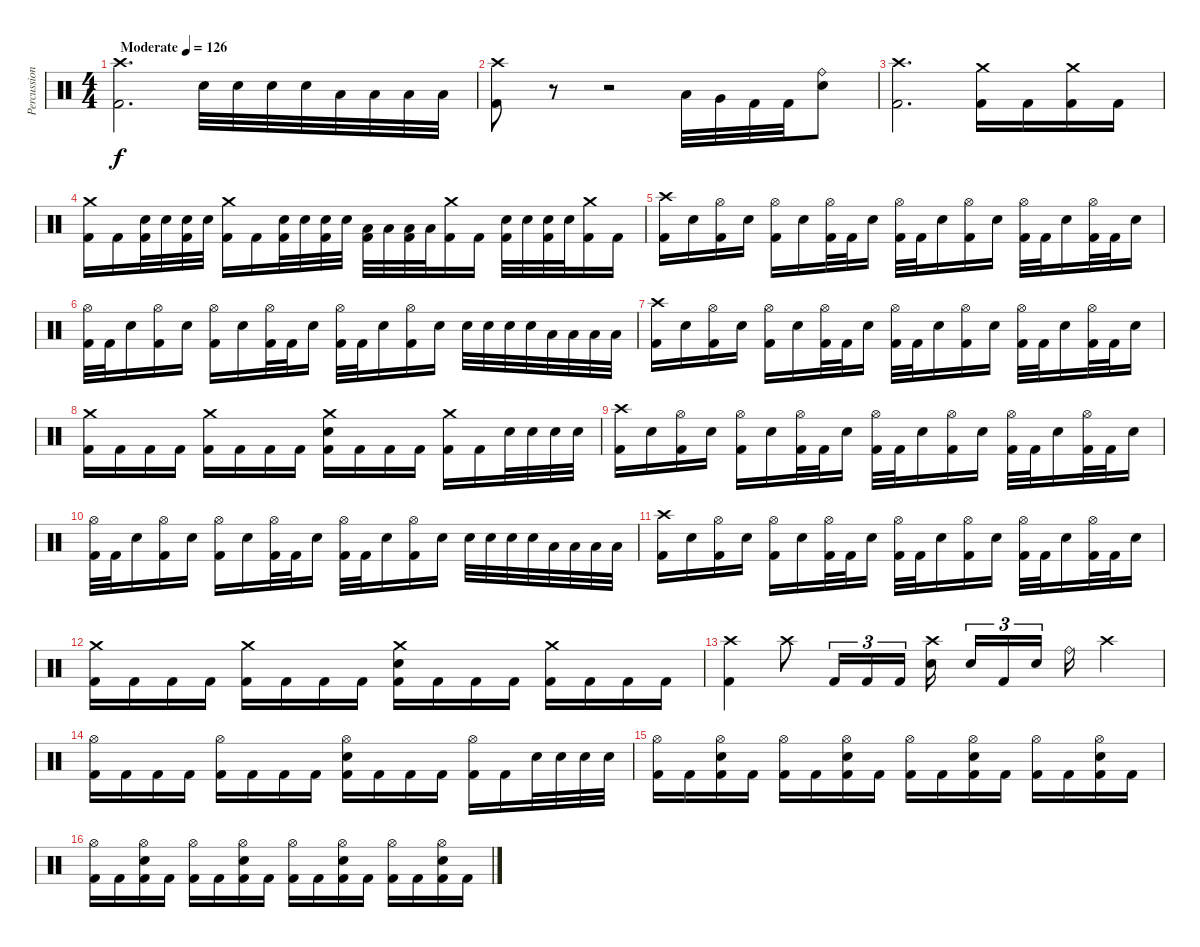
\track ("Percussion" "Percussion") {instrument percussion}
\staff {score}
\articulation defaults
\ts (4 4)
\tempo (126 "Moderate")
\clef neutral
\ks c
("Crash high (hit)" "Kick (hit) 2").2{d dy f} "Electric Snare (hit)".32 "Electric Snare (hit)".32 "Electric Snare (hit)".32 "Electric Snare (hit)".32 "Low Tom (hit)".32 "Low Tom (hit)".32 "Low Tom (hit)".32 "Low Tom (hit)".32 |
("Crash high (hit)" "Kick (hit) 2").8 r.8 r.2 "Low Tom (hit)".32 "Very Low Tom (hit)".32 "Kick (hit) 2".32 "Kick (hit) 2".32 ("Ride (bell)" "Electric Snare (hit)").8 |
("Crash high (hit)" "Kick (hit) 2").2{d} ("Crash medium (hit)" "Kick (hit) 2").16 "Kick (hit) 2".16 ("Crash medium (hit)" "Kick (hit) 2").16 "Kick (hit) 2".16 |
("Crash medium (hit)" "Kick (hit) 2").16 "Kick (hit) 2".16 ("Electric Snare (hit)" "Kick (hit) 2").32 "Electric Snare (hit)".32 ("Electric Snare (hit)" "Kick (hit) 2").32 "Electric Snare (hit)".32 ("Crash medium (hit)" "Kick (hit) 2").16 "Kick (hit) 2".16 ("Electric Snare (hit)" "Kick (hit) 2").32 "Electric Snare (hit)".32 ("Electric Snare (hit)" "Kick (hit) 2").32 "Electric Snare (hit)".32 ("Low Tom (hit)" "Kick (hit) 2").32 "Low Tom (hit)".32 ("Low Tom (hit)" "Kick (hit) 2").32 "Low Tom (hit)".32 ("Crash medium (hit)" "Kick (hit) 2").16 "Kick (hit) 2".16 ("Electric Snare (hit)" "Kick (hit) 2").32 "Electric Snare (hit)".32 ("Electric Snare (hit)" "Kick (hit) 2").32 "Electric Snare (hit)".32 ("Crash medium (hit)" "Kick (hit) 2").16 "Kick (hit) 2".16 |
("Crash high (hit)" "Kick (hit) 2").16 "Electric Snare (hit)".16 ("Hi-Hat (open)" "Kick (hit) 2").16 "Electric Snare (hit)".16 ("Hi-Hat (open)" "Kick (hit) 2").16 "Electric Snare (hit)".16 ("Hi-Hat (open)" "Kick (hit) 2").32 "Kick (hit) 2".32 "Electric Snare (hit)".16 ("Hi-Hat (open)" "Kick (hit) 2").32 "Kick (hit) 2".32 "Electric Snare (hit)".16 ("Hi-Hat (open)" "Kick (hit) 2").16 "Electric Snare (hit)".16 ("Hi-Hat (open)" "Kick (hit) 2").32 "Kick (hit) 2".32 "Electric Snare (hit)".16 ("Hi-Hat (open)" "Kick (hit) 2").32 "Kick (hit) 2".32 "Electric Snare (hit)".16 |
("Hi-Hat (open)" "Kick (hit) 2").32 "Kick (hit) 2".32 "Electric Snare (hit)".16 ("Hi-Hat (open)" "Kick (hit) 2").16 "Electric Snare (hit)".16 ("Hi-Hat (open)" "Kick (hit) 2").16 "Electric Snare (hit)".16 ("Hi-Hat (open)" "Kick (hit) 2").32 "Kick (hit) 2".32 "Electric Snare (hit)".16 ("Hi-Hat (open)" "Kick (hit) 2").32 "Kick (hit) 2".32 "Electric Snare (hit)".16 ("Hi-Hat (open)" "Kick (hit) 2").16 "Electric Snare (hit)".16 "Electric Snare (hit)".32 "Electric Snare (hit)".32 "Electric Snare (hit)".32 "Electric Snare (hit)".32 "Low Tom (hit)".32 "Low Tom (hit)".32 "Low Tom (hit)".32 "Low Tom (hit)".32 |
("Crash high (hit)" "Kick (hit) 2").16 "Electric Snare (hit)".16 ("Hi-Hat (open)" "Kick (hit) 2").16 "Electric Snare (hit)".16 ("Hi-Hat (open)" "Kick (hit) 2").16 "Electric Snare (hit)".16 ("Hi-Hat (open)" "Kick (hit) 2").32 "Kick (hit) 2".32 "Electric Snare (hit)".16 ("Hi-Hat (open)" "Kick (hit) 2").32 "Kick (hit) 2".32 "Electric Snare (hit)".16 ("Hi-Hat (open)" "Kick (hit) 2").16 "Electric Snare (hit)".16 ("Hi-Hat (open)" "Kick (hit) 2").32 "Kick (hit) 2".32 "Electric Snare (hit)".16 ("Hi-Hat (open)" "Kick (hit) 2").32 "Kick (hit) 2".32 "Electric Snare (hit)".16 |
("Crash medium (hit)" "Kick (hit) 2").16 "Kick (hit) 2".16 "Kick (hit) 2".16 "Kick (hit) 2".16 ("Crash medium (hit)" "Kick (hit) 2").16 "Kick (hit) 2".16 "Kick (hit) 2".16 "Kick (hit) 2".16 ("Crash medium (hit)" "Electric Snare (hit)" "Kick (hit) 2").16 "Kick (hit) 2".16 "Kick (hit) 2".16 "Kick (hit) 2".16 ("Crash medium (hit)" "Kick (hit) 2").16 "Kick (hit) 2".16 "Electric Snare (hit)".32 "Electric Snare (hit)".32 "Electric Snare (hit)".32 "Electric Snare (hit)".32 |
("Crash high (hit)" "Kick (hit) 2").16 "Electric Snare (hit)".16 ("Hi-Hat (open)" "Kick (hit) 2").16 "Electric Snare (hit)".16 ("Hi-Hat (open)" "Kick (hit) 2").16 "Electric Snare (hit)".16 ("Hi-Hat (open)" "Kick (hit) 2").32 "Kick (hit) 2".32 "Electric Snare (hit)".16 ("Hi-Hat (open)" "Kick (hit) 2").32 "Kick (hit) 2".32 "Electric Snare (hit)".16 ("Hi-Hat (open)" "Kick (hit) 2").16 "Electric Snare (hit)".16 ("Hi-Hat (open)" "Kick (hit) 2").32 "Kick (hit) 2".32 "Electric Snare (hit)".16 ("Hi-Hat (open)" "Kick (hit) 2").32 "Kick (hit) 2".32 "Electric Snare (hit)".16 |
("Hi-Hat (open)" "Kick (hit) 2").32 "Kick (hit) 2".32 "Electric Snare (hit)".16 ("Hi-Hat (open)" "Kick (hit) 2").16 "Electric Snare (hit)".16 ("Hi-Hat (open)" "Kick (hit) 2").16 "Electric Snare (hit)".16 ("Hi-Hat (open)" "Kick (hit) 2").32 "Kick (hit) 2".32 "Electric Snare (hit)".16 ("Hi-Hat (open)" "Kick (hit) 2").32 "Kick (hit) 2".32 "Electric Snare (hit)".16 ("Hi-Hat (open)" "Kick (hit) 2").16 "Electric Snare (hit)".16 "Electric Snare (hit)".32 "Electric Snare (hit)".32 "Electric Snare (hit)".32 "Electric Snare (hit)".32 "Low Tom (hit)".32 "Low Tom (hit)".32 "Low Tom (hit)".32 "Low Tom (hit)".32 |
("Crash high (hit)" "Kick (hit) 2").16 "Electric Snare (hit)".16 ("Hi-Hat (open)" "Kick (hit) 2").16 "Electric Snare (hit)".16 ("Hi-Hat (open)" "Kick (hit) 2").16 "Electric Snare (hit)".16 ("Hi-Hat (open)" "Kick (hit) 2").32 "Kick (hit) 2".32 "Electric Snare (hit)".16 ("Hi-Hat (open)" "Kick (hit) 2").32 "Kick (hit) 2".32 "Electric Snare (hit)".16 ("Hi-Hat (open)" "Kick (hit) 2").16 "Electric Snare (hit)".16 ("Hi-Hat (open)" "Kick (hit) 2").32 "Kick (hit) 2".32 "Electric Snare (hit)".16 ("Hi-Hat (open)" "Kick (hit) 2").32 "Kick (hit) 2".32 "Electric Snare (hit)".16 |
("Crash medium (hit)" "Kick (hit) 2").16 "Kick (hit) 2".16 "Kick (hit) 2".16 "Kick (hit) 2".16 ("Crash medium (hit)" "Kick (hit) 2").16 "Kick (hit) 2".16 "Kick (hit) 2".16 "Kick (hit) 2".16 ("Crash medium (hit)" "Electric Snare (hit)" "Kick (hit) 2").16 "Kick (hit) 2".16 "Kick (hit) 2".16 "Kick (hit) 2".16 ("Crash medium (hit)" "Kick (hit) 2").16 "Kick (hit) 2".16 "Kick (hit) 2".16 "Kick (hit) 2".16 |
("Crash high (hit)" "Kick (hit) 2").4 "Crash high (hit)".8 "Kick (hit) 2".16{tu (3 2)} "Kick (hit) 2".16{tu (3 2)} "Kick (hit) 2".16{tu (3 2)} ("Crash high (hit)" "Electric Snare (hit)").16{beam splitsecondary} "Electric Snare (hit)".16{tu (3 2)} "Kick (hit) 2".16{tu (3 2)} "Electric Snare (hit)".16{tu (3 2) beam splitsecondary} "Ride (bell)".16 "Crash high (hit)".4 |
("Hi-Hat (open)" "Kick (hit) 2").16 "Kick (hit) 2".16 "Kick (hit) 2".16 "Kick (hit) 2".16 ("Hi-Hat (open)" "Kick (hit) 2").16 "Kick (hit) 2".16 "Kick (hit) 2".16 "Kick (hit) 2".16 ("Hi-Hat (open)" "Electric Snare (hit)" "Kick (hit) 2").16 "Kick (hit) 2".16 "Kick (hit) 2".16 "Kick (hit) 2".16 ("Hi-Hat (open)" "Kick (hit) 2").16 "Kick (hit) 2".16 "Electric Snare (hit)".32 "Electric Snare (hit)".32 "Electric Snare (hit)".32 "Electric Snare (hit)".32 |
("Hi-Hat (open)" "Kick (hit) 2").16 "Kick (hit) 2".16 ("Hi-Hat (open)" "Electric Snare (hit)" "Kick (hit) 2").16 "Kick (hit) 2".16 ("Hi-Hat (open)" "Kick (hit) 2").16 "Kick (hit) 2".16 ("Hi-Hat (open)" "Electric Snare (hit)" "Kick (hit) 2").16 "Kick (hit) 2".16 ("Hi-Hat (open)" "Kick (hit) 2").16 "Kick (hit) 2".16 ("Hi-Hat (open)" "Electric Snare (hit)" "Kick (hit) 2").16 "Kick (hit) 2".16 ("Hi-Hat (open)" "Kick (hit) 2").16 "Kick (hit) 2".16 ("Hi-Hat (open)" "Electric Snare (hit)" "Kick (hit) 2").16 "Kick (hit) 2".16 |
("Hi-Hat (open)" "Kick (hit) 2").16 "Kick (hit) 2".16 ("Hi-Hat (open)" "Electric Snare (hit)" "Kick (hit) 2").16 "Kick (hit) 2".16 ("Hi-Hat (open)" "Kick (hit) 2").16 "Kick (hit) 2".16 ("Hi-Hat (open)" "Electric Snare (hit)" "Kick (hit) 2").16 "Kick (hit) 2".16 ("Hi-Hat (open)" "Kick (hit) 2").16 "Kick (hit) 2".16 ("Hi-Hat (open)" "Electric Snare (hit)" "Kick (hit) 2").16 "Kick (hit) 2".16 ("Hi-Hat (open)" "Kick (hit) 2").16 "Kick (hit) 2".16 ("Hi-Hat (open)" "Electric Snare (hit)" "Kick (hit) 2").16 "Kick (hit) 2".16
